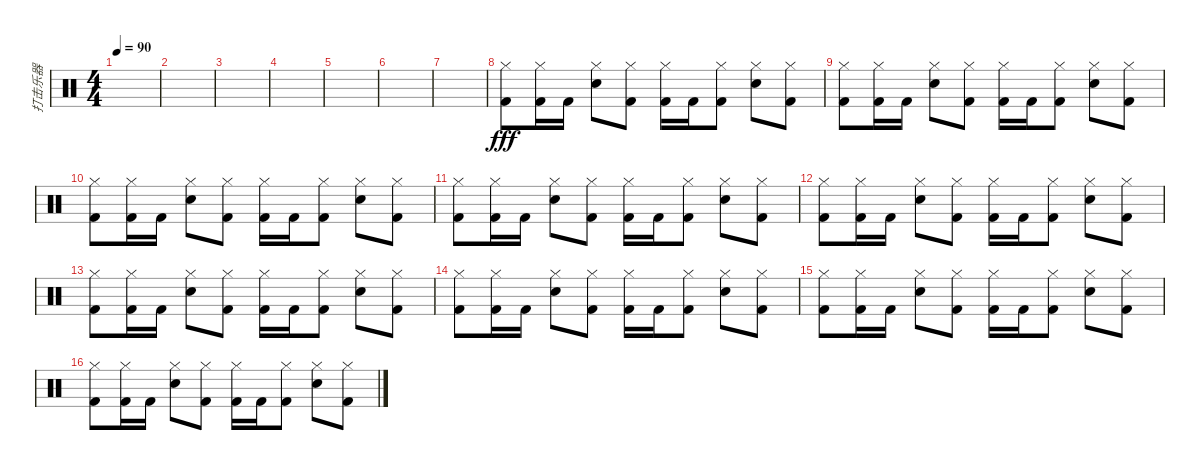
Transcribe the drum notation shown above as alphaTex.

\track ("打击乐器" "打击乐器") {instrument percussion}
\staff {score}
\articulation defaults
\ts (4 4)
\tempo 90
\clef neutral
\ks c
|
|
|
|
|
|
|
("Hi-Hat (closed)" "Kick (hit) 2").8{dy fff} ("Hi-Hat (closed)" "Kick (hit) 2").16 "Kick (hit) 2".16 ("Hi-Hat (closed)" "Electric Snare (hit)").8 ("Hi-Hat (closed)" "Kick (hit) 2").8 ("Hi-Hat (closed)" "Kick (hit) 2").16 "Kick (hit) 2".16 ("Hi-Hat (closed)" "Kick (hit) 2").8 ("Hi-Hat (closed)" "Electric Snare (hit)").8 ("Hi-Hat (closed)" "Kick (hit) 2").8 |
("Hi-Hat (closed)" "Kick (hit) 2").8 ("Hi-Hat (closed)" "Kick (hit) 2").16 "Kick (hit) 2".16 ("Hi-Hat (closed)" "Electric Snare (hit)").8 ("Hi-Hat (closed)" "Kick (hit) 2").8 ("Hi-Hat (closed)" "Kick (hit) 2").16 "Kick (hit) 2".16 ("Hi-Hat (closed)" "Kick (hit) 2").8 ("Hi-Hat (closed)" "Electric Snare (hit)").8 ("Hi-Hat (closed)" "Kick (hit) 2").8 |
("Hi-Hat (closed)" "Kick (hit) 2").8 ("Hi-Hat (closed)" "Kick (hit) 2").16 "Kick (hit) 2".16 ("Hi-Hat (closed)" "Electric Snare (hit)").8 ("Hi-Hat (closed)" "Kick (hit) 2").8 ("Hi-Hat (closed)" "Kick (hit) 2").16 "Kick (hit) 2".16 ("Hi-Hat (closed)" "Kick (hit) 2").8 ("Hi-Hat (closed)" "Electric Snare (hit)").8 ("Hi-Hat (closed)" "Kick (hit) 2").8 |
("Hi-Hat (closed)" "Kick (hit) 2").8 ("Hi-Hat (closed)" "Kick (hit) 2").16 "Kick (hit) 2".16 ("Hi-Hat (closed)" "Electric Snare (hit)").8 ("Hi-Hat (closed)" "Kick (hit) 2").8 ("Hi-Hat (closed)" "Kick (hit) 2").16 "Kick (hit) 2".16 ("Hi-Hat (closed)" "Kick (hit) 2").8 ("Hi-Hat (closed)" "Electric Snare (hit)").8 ("Hi-Hat (closed)" "Kick (hit) 2").8 |
("Hi-Hat (closed)" "Kick (hit) 2").8 ("Hi-Hat (closed)" "Kick (hit) 2").16 "Kick (hit) 2".16 ("Hi-Hat (closed)" "Electric Snare (hit)").8 ("Hi-Hat (closed)" "Kick (hit) 2").8 ("Hi-Hat (closed)" "Kick (hit) 2").16 "Kick (hit) 2".16 ("Hi-Hat (closed)" "Kick (hit) 2").8 ("Hi-Hat (closed)" "Electric Snare (hit)").8 ("Hi-Hat (closed)" "Kick (hit) 2").8 |
("Hi-Hat (closed)" "Kick (hit) 2").8 ("Hi-Hat (closed)" "Kick (hit) 2").16 "Kick (hit) 2".16 ("Hi-Hat (closed)" "Electric Snare (hit)").8 ("Hi-Hat (closed)" "Kick (hit) 2").8 ("Hi-Hat (closed)" "Kick (hit) 2").16 "Kick (hit) 2".16 ("Hi-Hat (closed)" "Kick (hit) 2").8 ("Hi-Hat (closed)" "Electric Snare (hit)").8 ("Hi-Hat (closed)" "Kick (hit) 2").8 |
("Hi-Hat (closed)" "Kick (hit) 2").8 ("Hi-Hat (closed)" "Kick (hit) 2").16 "Kick (hit) 2".16 ("Hi-Hat (closed)" "Electric Snare (hit)").8 ("Hi-Hat (closed)" "Kick (hit) 2").8 ("Hi-Hat (closed)" "Kick (hit) 2").16 "Kick (hit) 2".16 ("Hi-Hat (closed)" "Kick (hit) 2").8 ("Hi-Hat (closed)" "Electric Snare (hit)").8 ("Hi-Hat (closed)" "Kick (hit) 2").8 |
("Hi-Hat (closed)" "Kick (hit) 2").8 ("Hi-Hat (closed)" "Kick (hit) 2").16 "Kick (hit) 2".16 ("Hi-Hat (closed)" "Electric Snare (hit)").8 ("Hi-Hat (closed)" "Kick (hit) 2").8 ("Hi-Hat (closed)" "Kick (hit) 2").16 "Kick (hit) 2".16 ("Hi-Hat (closed)" "Kick (hit) 2").8 ("Hi-Hat (closed)" "Electric Snare (hit)").8 ("Hi-Hat (closed)" "Kick (hit) 2").8 |
("Hi-Hat (closed)" "Kick (hit) 2").8 ("Hi-Hat (closed)" "Kick (hit) 2").16 "Kick (hit) 2".16 ("Hi-Hat (closed)" "Electric Snare (hit)").8 ("Hi-Hat (closed)" "Kick (hit) 2").8 ("Hi-Hat (closed)" "Kick (hit) 2").16 "Kick (hit) 2".16 ("Hi-Hat (closed)" "Kick (hit) 2").8 ("Hi-Hat (closed)" "Electric Snare (hit)").8 ("Hi-Hat (closed)" "Kick (hit) 2").8
